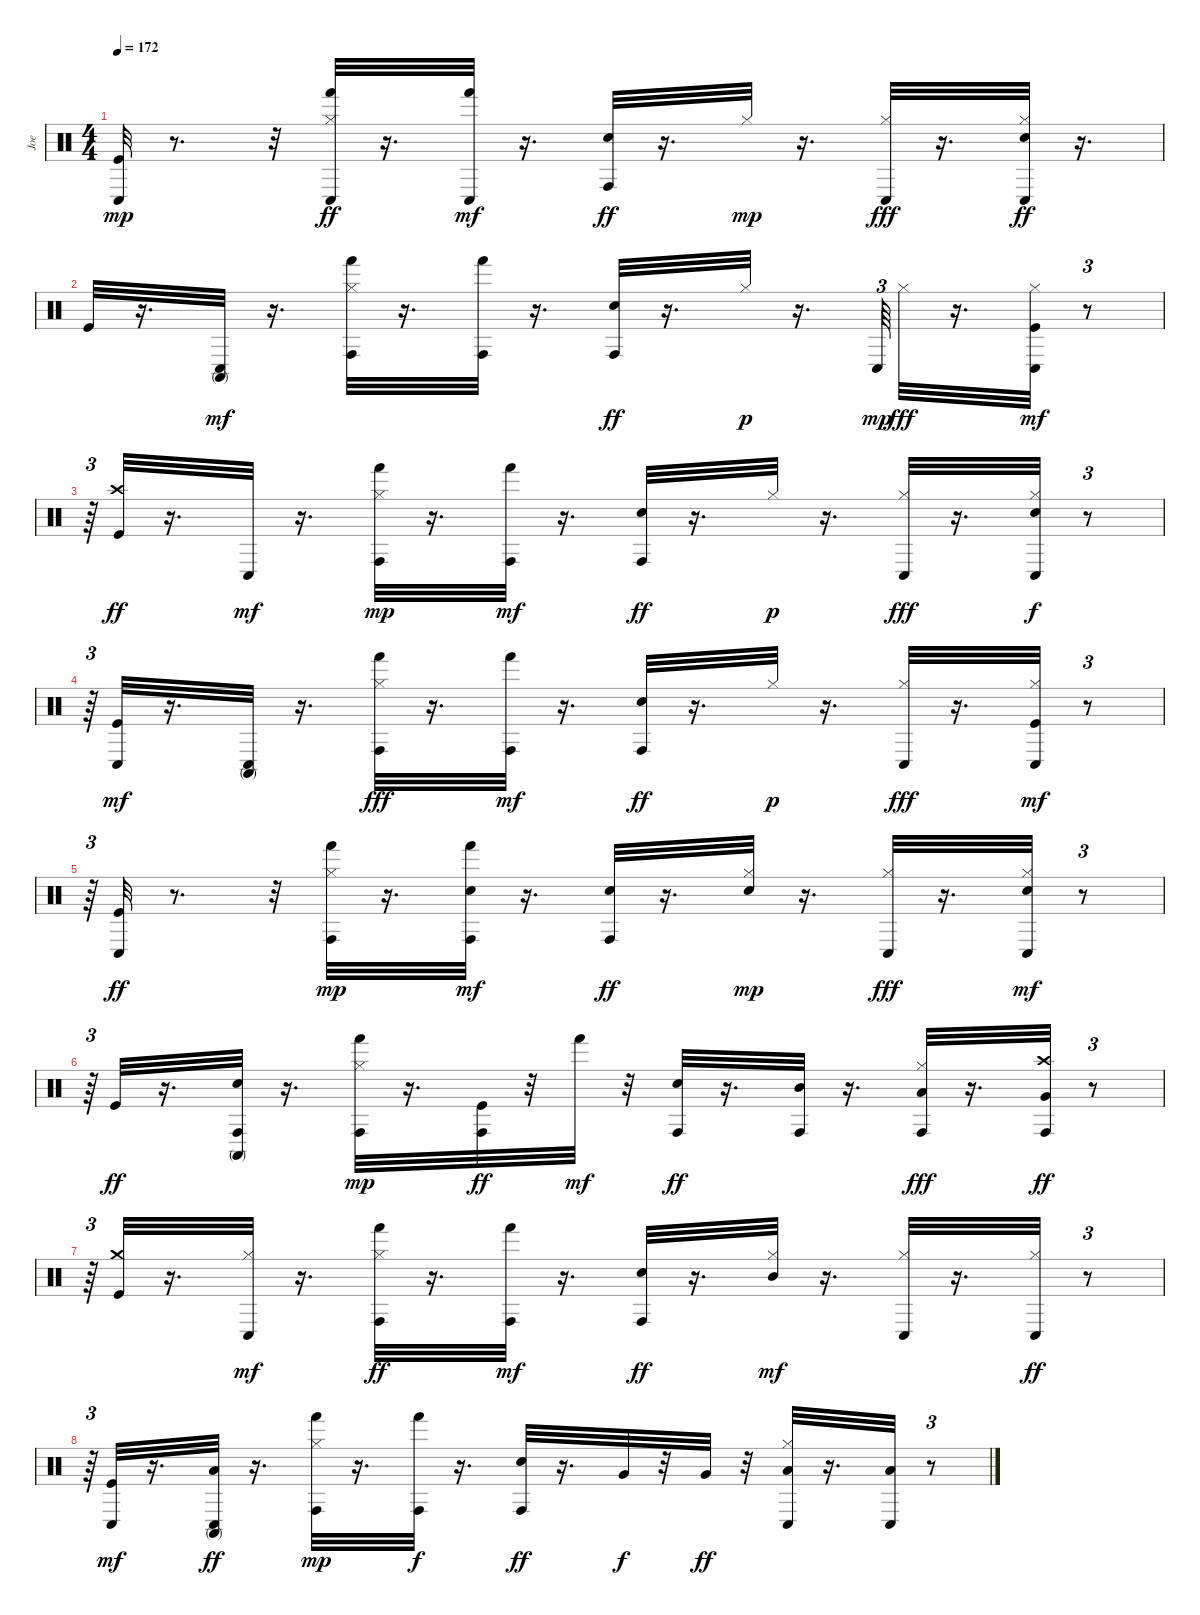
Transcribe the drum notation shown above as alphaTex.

\track ("Joe" "Joe") {instrument percussion}
\staff {score}
\articulation defaults
\ts (4 4)
\tempo 172
\clef neutral
\ks c
("Kick (hit)" "Conga low (hit)").32{dy mp} r.8{d} r.32 ("Conga low (hit)" "Hand (hit)" "Hi-Hat (closed)").32{dy ff} r.16{d} ("Conga low (hit)" "Hand (hit)").32{dy mf} r.16{d} ("Snare (hit) 2" "Conga high (hit)").32{dy ff} r.16{d} "Hi-Hat (closed)".32{dy mp} r.16{d} ("Conga low (hit)" "Hi-Hat (closed)").32{dy fff} r.16{d} ("Conga low (hit)" "Hi-Hat (closed)" "Snare (hit) 2").32{dy ff} r.16{d} |
"Kick (hit)".32 r.16{d} ("Conga high (mute)" "Conga low (hit)").32{dy mf} r.16{d} ("Hand (hit)" "Hi-Hat (closed)" "Conga high (hit)").32 r.16{d} ("Conga high (hit)" "Hand (hit)").32 r.16{d} ("Snare (hit) 2" "Conga high (hit)").32{dy ff} r.16{d} "Hi-Hat (closed)".32{dy p} r.16{d} "Conga low (hit)".64{tu (3 2) dy mp} "Hi-Hat (closed)".32{dy fff} r.16{d} ("Conga low (hit)" "Kick (hit)" "Hi-Hat (closed)").32{dy mf} r.8{tu (3 2)} |
r.64{tu (3 2)} ("Crash high (hit)" "Kick (hit)").32{dy ff} r.16{d} "Conga low (hit)".32{dy mf} r.16{d} ("Hi-Hat (closed)" "Hand (hit)" "Conga high (hit)").32{dy mp} r.16{d} ("Conga high (hit)" "Hand (hit)").32{dy mf} r.16{d} ("Snare (hit) 2" "Conga high (hit)").32{dy ff} r.16{d} "Hi-Hat (closed)".32{dy p} r.16{d} ("Conga low (hit)" "Hi-Hat (closed)").32{dy fff} r.16{d} ("Hi-Hat (closed)" "Snare (hit) 2" "Conga low (hit)").32{dy f} r.8{tu (3 2)} |
r.64{tu (3 2)} ("Kick (hit)" "Conga low (hit)").32{dy mf} r.16{d} ("Conga high (mute)" "Conga low (hit)").32 r.16{d} ("Hand (hit)" "Conga high (hit)" "Hi-Hat (closed)").32{dy fff} r.16{d} ("Conga high (hit)" "Hand (hit)").32{dy mf} r.16{d} ("Snare (hit) 2" "Conga high (hit)").32{dy ff} r.16{d} "Hi-Hat (closed)".32{dy p} r.16{d} ("Conga low (hit)" "Hi-Hat (closed)").32{dy fff} r.16{d} ("Hi-Hat (closed)" "Kick (hit)" "Conga low (hit)").32{dy mf} r.8{tu (3 2)} |
r.64{tu (3 2)} ("Kick (hit)" "Conga low (hit)").32{dy ff} r.8{d} r.32 ("Hi-Hat (closed)" "Hand (hit)" "Conga high (hit)").32{dy mp} r.16{d} ("Snare (hit) 2" "Hand (hit)" "Conga high (hit)").32{dy mf} r.16{d} ("Snare (hit) 2" "Conga high (hit)").32{dy ff} r.16{d} ("Hi-Hat (closed)" "Snare (hit) 2").32{dy mp} r.16{d} ("Conga low (hit)" "Hi-Hat (closed)").32{dy fff} r.16{d} ("Hi-Hat (closed)" "Snare (hit) 2" "Conga low (hit)").32{dy mf} r.8{tu (3 2)} |
r.64{tu (3 2)} "Kick (hit)".32{dy ff} r.16{d} ("Snare (hit) 2" "Conga high (hit)" "Conga high (mute)").32 r.16{d} ("Conga high (hit)" "Hi-Hat (closed)" "Hand (hit)").32{dy mp} r.16{d} ("Kick (hit)" "Conga high (hit)").32{dy ff} r.32 "Hand (hit)".32{dy mf} r.32 ("Snare (hit) 2" "Conga high (hit)").32{dy ff} r.16{d} ("Conga high (hit)" "Mid Tom (hit)").32 r.16{d} ("Hi-Hat (closed)" "Conga high (hit)" "Low Tom (hit)").32{dy fff} r.16{d} ("Crash high (hit)" "Conga high (hit)" "Very Low Tom (hit)").32{dy ff} r.8{tu (3 2)} |
r.64{tu (3 2)} ("Crash medium (hit)" "Kick (hit)").32 r.16{d} ("Conga low (hit)" "Hi-Hat (closed)").32{dy mf} r.16{d} ("Hand (hit)" "Conga high (hit)" "Hi-Hat (closed)").32{dy ff} r.16{d} ("Conga high (hit)" "Hand (hit)").32{dy mf} r.16{d} ("Snare (hit) 2" "Conga high (hit)").32{dy ff} r.16{d} ("Mid Tom (hit)" "Hi-Hat (closed)").32{dy mf} r.16{d} ("Hi-Hat (closed)" "Conga low (hit)").32 r.16{d} ("Hi-Hat (closed)" "Conga low (hit)").32{dy ff} r.8{tu (3 2)} |
r.64{tu (3 2)} ("Kick (hit)" "Conga low (hit)").32{dy mf} r.16{d} ("Conga low (hit)" "Low Tom (hit)" "Conga high (mute)").32{dy ff} r.16{d} ("Hi-Hat (closed)" "Conga high (hit)" "Hand (hit)").32{dy mp} r.16{d} ("Hand (hit)" "Conga high (hit)").32{dy f} r.16{d} ("Snare (hit) 2" "Conga high (hit)").32{dy ff} r.16{d} "Very Low Tom (hit)".32{dy f} r.32 "Very Low Tom (hit)".32{dy ff} r.32 ("Hi-Hat (closed)" "Conga low (hit)" "Low Floor Tom (hit)").32 r.16{d} ("Conga low (hit)" "Low Floor Tom (hit)").32 r.8{tu (3 2)}
